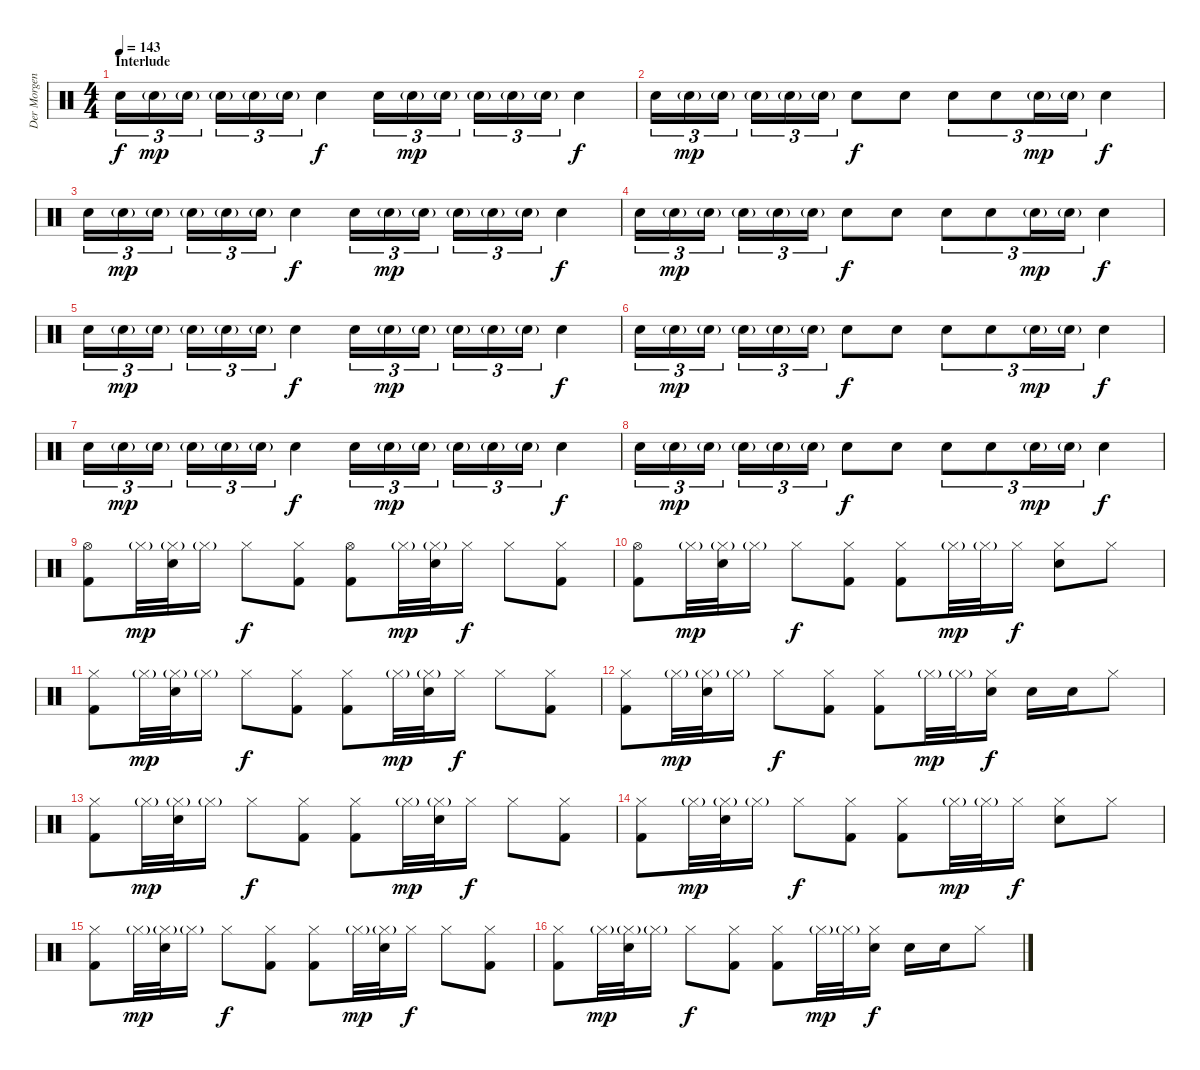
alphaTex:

\track ("Der Morgenstern" "Der Morgen") {instrument percussion}
\staff {score}
\articulation defaults
\ts (4 4)
\section ("" "Interlude")
\tempo 143
\clef neutral
\ks c "Electric Snare (hit)".16{tu (3 2) dy f} "Electric Snare (hit)"{g}.16{tu (3 2) dy mp} "Electric Snare (hit)"{g}.16{tu (3 2)} "Electric Snare (hit)"{g}.16{tu (3 2)} "Electric Snare (hit)"{g}.16{tu (3 2)} "Electric Snare (hit)"{g}.16{tu (3 2)} "Electric Snare (hit)".4{dy f} "Electric Snare (hit)".16{tu (3 2)} "Electric Snare (hit)"{g}.16{tu (3 2) dy mp} "Electric Snare (hit)"{g}.16{tu (3 2)} "Electric Snare (hit)"{g}.16{tu (3 2)} "Electric Snare (hit)"{g}.16{tu (3 2)} "Electric Snare (hit)"{g}.16{tu (3 2)} "Electric Snare (hit)".4{dy f}
|
"Electric Snare (hit)".16{tu (3 2)} "Electric Snare (hit)"{g}.16{tu (3 2) dy mp} "Electric Snare (hit)"{g}.16{tu (3 2)} "Electric Snare (hit)"{g}.16{tu (3 2)} "Electric Snare (hit)"{g}.16{tu (3 2)} "Electric Snare (hit)"{g}.16{tu (3 2)} "Electric Snare (hit)".8{dy f} "Electric Snare (hit)".8 "Electric Snare (hit)".8{tu (3 2)} "Electric Snare (hit)".8{tu (3 2)} "Electric Snare (hit)"{g}.16{tu (3 2) dy mp} "Electric Snare (hit)"{g}.16{tu (3 2)} "Electric Snare (hit)".4{dy f} |
"Electric Snare (hit)".16{tu (3 2)} "Electric Snare (hit)"{g}.16{tu (3 2) dy mp} "Electric Snare (hit)"{g}.16{tu (3 2)} "Electric Snare (hit)"{g}.16{tu (3 2)} "Electric Snare (hit)"{g}.16{tu (3 2)} "Electric Snare (hit)"{g}.16{tu (3 2)} "Electric Snare (hit)".4{dy f} "Electric Snare (hit)".16{tu (3 2)} "Electric Snare (hit)"{g}.16{tu (3 2) dy mp} "Electric Snare (hit)"{g}.16{tu (3 2)} "Electric Snare (hit)"{g}.16{tu (3 2)} "Electric Snare (hit)"{g}.16{tu (3 2)} "Electric Snare (hit)"{g}.16{tu (3 2)} "Electric Snare (hit)".4{dy f} |
"Electric Snare (hit)".16{tu (3 2)} "Electric Snare (hit)"{g}.16{tu (3 2) dy mp} "Electric Snare (hit)"{g}.16{tu (3 2)} "Electric Snare (hit)"{g}.16{tu (3 2)} "Electric Snare (hit)"{g}.16{tu (3 2)} "Electric Snare (hit)"{g}.16{tu (3 2)} "Electric Snare (hit)".8{dy f} "Electric Snare (hit)".8 "Electric Snare (hit)".8{tu (3 2)} "Electric Snare (hit)".8{tu (3 2)} "Electric Snare (hit)"{g}.16{tu (3 2) dy mp} "Electric Snare (hit)"{g}.16{tu (3 2)} "Electric Snare (hit)".4{dy f} |
"Electric Snare (hit)".16{tu (3 2)} "Electric Snare (hit)"{g}.16{tu (3 2) dy mp} "Electric Snare (hit)"{g}.16{tu (3 2)} "Electric Snare (hit)"{g}.16{tu (3 2)} "Electric Snare (hit)"{g}.16{tu (3 2)} "Electric Snare (hit)"{g}.16{tu (3 2)} "Electric Snare (hit)".4{dy f} "Electric Snare (hit)".16{tu (3 2)} "Electric Snare (hit)"{g}.16{tu (3 2) dy mp} "Electric Snare (hit)"{g}.16{tu (3 2)} "Electric Snare (hit)"{g}.16{tu (3 2)} "Electric Snare (hit)"{g}.16{tu (3 2)} "Electric Snare (hit)"{g}.16{tu (3 2)} "Electric Snare (hit)".4{dy f} |
"Electric Snare (hit)".16{tu (3 2)} "Electric Snare (hit)"{g}.16{tu (3 2) dy mp} "Electric Snare (hit)"{g}.16{tu (3 2)} "Electric Snare (hit)"{g}.16{tu (3 2)} "Electric Snare (hit)"{g}.16{tu (3 2)} "Electric Snare (hit)"{g}.16{tu (3 2)} "Electric Snare (hit)".8{dy f} "Electric Snare (hit)".8 "Electric Snare (hit)".8{tu (3 2)} "Electric Snare (hit)".8{tu (3 2)} "Electric Snare (hit)"{g}.16{tu (3 2) dy mp} "Electric Snare (hit)"{g}.16{tu (3 2)} "Electric Snare (hit)".4{dy f} |
"Electric Snare (hit)".16{tu (3 2)} "Electric Snare (hit)"{g}.16{tu (3 2) dy mp} "Electric Snare (hit)"{g}.16{tu (3 2)} "Electric Snare (hit)"{g}.16{tu (3 2)} "Electric Snare (hit)"{g}.16{tu (3 2)} "Electric Snare (hit)"{g}.16{tu (3 2)} "Electric Snare (hit)".4{dy f} "Electric Snare (hit)".16{tu (3 2)} "Electric Snare (hit)"{g}.16{tu (3 2) dy mp} "Electric Snare (hit)"{g}.16{tu (3 2)} "Electric Snare (hit)"{g}.16{tu (3 2)} "Electric Snare (hit)"{g}.16{tu (3 2)} "Electric Snare (hit)"{g}.16{tu (3 2)} "Electric Snare (hit)".4{dy f} |
"Electric Snare (hit)".16{tu (3 2)} "Electric Snare (hit)"{g}.16{tu (3 2) dy mp} "Electric Snare (hit)"{g}.16{tu (3 2)} "Electric Snare (hit)"{g}.16{tu (3 2)} "Electric Snare (hit)"{g}.16{tu (3 2)} "Electric Snare (hit)"{g}.16{tu (3 2)} "Electric Snare (hit)".8{dy f} "Electric Snare (hit)".8 "Electric Snare (hit)".8{tu (3 2)} "Electric Snare (hit)".8{tu (3 2)} "Electric Snare (hit)"{g}.16{tu (3 2) dy mp} "Electric Snare (hit)"{g}.16{tu (3 2)} "Electric Snare (hit)".4{dy f} |
("Hi-Hat (open)" "Kick (hit) 2").8 "Hi-Hat (closed)"{g}.32{dy mp} ("Hi-Hat (closed)"{g} "Electric Snare (hit)").32 "Hi-Hat (closed)"{g}.16 "Hi-Hat (closed)".8{dy f} ("Hi-Hat (closed)" "Kick (hit) 2").8 ("Hi-Hat (open)" "Kick (hit) 2").8 "Hi-Hat (closed)"{g}.32{dy mp} ("Hi-Hat (closed)"{g} "Electric Snare (hit)").32 "Hi-Hat (closed)".16{dy f} "Hi-Hat (closed)".8 ("Hi-Hat (closed)" "Kick (hit) 2").8 |
("Hi-Hat (open)" "Kick (hit) 2").8 "Hi-Hat (closed)"{g}.32{dy mp} ("Hi-Hat (closed)"{g} "Electric Snare (hit)").32 "Hi-Hat (closed)"{g}.16 "Hi-Hat (closed)".8{dy f} ("Hi-Hat (closed)" "Kick (hit) 2").8 ("Hi-Hat (closed)" "Kick (hit) 2").8 "Hi-Hat (closed)"{g}.32{dy mp} "Hi-Hat (closed)"{g}.32 "Hi-Hat (closed)".16{dy f} ("Hi-Hat (closed)" "Electric Snare (hit)").8 "Hi-Hat (closed)".8 |
("Hi-Hat (closed)" "Kick (hit) 2").8 "Hi-Hat (closed)"{g}.32{dy mp} ("Hi-Hat (closed)"{g} "Electric Snare (hit)").32 "Hi-Hat (closed)"{g}.16 "Hi-Hat (closed)".8{dy f} ("Hi-Hat (closed)" "Kick (hit) 2").8 ("Hi-Hat (closed)" "Kick (hit) 2").8 "Hi-Hat (closed)"{g}.32{dy mp} ("Hi-Hat (closed)"{g} "Electric Snare (hit)").32 "Hi-Hat (closed)".16{dy f} "Hi-Hat (closed)".8 ("Hi-Hat (closed)" "Kick (hit) 2").8 |
("Hi-Hat (closed)" "Kick (hit) 2").8 "Hi-Hat (closed)"{g}.32{dy mp} ("Hi-Hat (closed)"{g} "Electric Snare (hit)").32 "Hi-Hat (closed)"{g}.16 "Hi-Hat (closed)".8{dy f} ("Hi-Hat (closed)" "Kick (hit) 2").8 ("Hi-Hat (closed)" "Kick (hit) 2").8 "Hi-Hat (closed)"{g}.32{dy mp} "Hi-Hat (closed)"{g}.32 ("Hi-Hat (closed)" "Electric Snare (hit)").16{dy f} "Electric Snare (hit)".16 "Electric Snare (hit)".16 "Hi-Hat (closed)".8 |
("Hi-Hat (closed)" "Kick (hit) 2").8 "Hi-Hat (closed)"{g}.32{dy mp} ("Hi-Hat (closed)"{g} "Electric Snare (hit)").32 "Hi-Hat (closed)"{g}.16 "Hi-Hat (closed)".8{dy f} ("Hi-Hat (closed)" "Kick (hit) 2").8 ("Hi-Hat (closed)" "Kick (hit) 2").8 "Hi-Hat (closed)"{g}.32{dy mp} ("Hi-Hat (closed)"{g} "Electric Snare (hit)").32 "Hi-Hat (closed)".16{dy f} "Hi-Hat (closed)".8 ("Hi-Hat (closed)" "Kick (hit) 2").8 |
("Hi-Hat (closed)" "Kick (hit) 2").8 "Hi-Hat (closed)"{g}.32{dy mp} ("Hi-Hat (closed)"{g} "Electric Snare (hit)").32 "Hi-Hat (closed)"{g}.16 "Hi-Hat (closed)".8{dy f} ("Hi-Hat (closed)" "Kick (hit) 2").8 ("Hi-Hat (closed)" "Kick (hit) 2").8 "Hi-Hat (closed)"{g}.32{dy mp} "Hi-Hat (closed)"{g}.32 "Hi-Hat (closed)".16{dy f} ("Hi-Hat (closed)" "Electric Snare (hit)").8 "Hi-Hat (closed)".8 |
("Hi-Hat (closed)" "Kick (hit) 2").8 "Hi-Hat (closed)"{g}.32{dy mp} ("Hi-Hat (closed)"{g} "Electric Snare (hit)").32 "Hi-Hat (closed)"{g}.16 "Hi-Hat (closed)".8{dy f} ("Hi-Hat (closed)" "Kick (hit) 2").8 ("Hi-Hat (closed)" "Kick (hit) 2").8 "Hi-Hat (closed)"{g}.32{dy mp} ("Hi-Hat (closed)"{g} "Electric Snare (hit)").32 "Hi-Hat (closed)".16{dy f} "Hi-Hat (closed)".8 ("Hi-Hat (closed)" "Kick (hit) 2").8 |
("Hi-Hat (closed)" "Kick (hit) 2").8 "Hi-Hat (closed)"{g}.32{dy mp} ("Hi-Hat (closed)"{g} "Electric Snare (hit)").32 "Hi-Hat (closed)"{g}.16 "Hi-Hat (closed)".8{dy f} ("Hi-Hat (closed)" "Kick (hit) 2").8 ("Hi-Hat (closed)" "Kick (hit) 2").8 "Hi-Hat (closed)"{g}.32{dy mp} "Hi-Hat (closed)"{g}.32 ("Hi-Hat (closed)" "Electric Snare (hit)").16{dy f} "Electric Snare (hit)".16 "Electric Snare (hit)".16 "Hi-Hat (closed)".8
